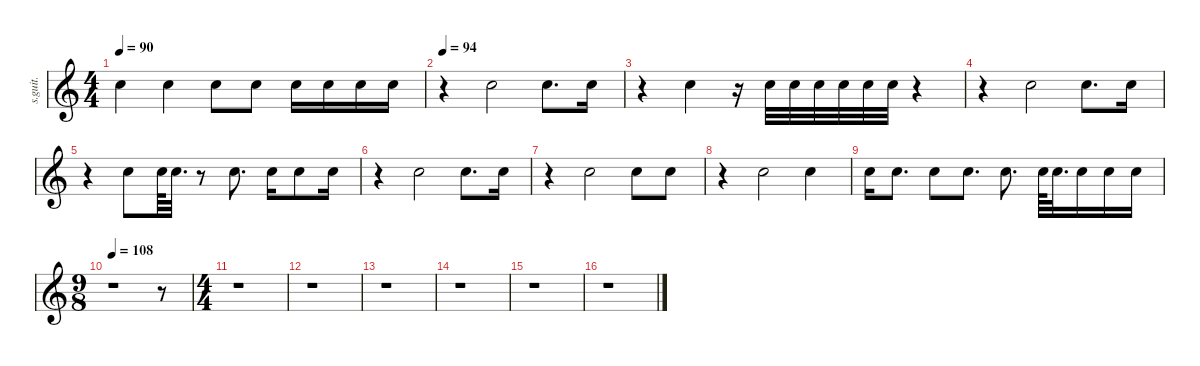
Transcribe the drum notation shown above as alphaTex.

\defaultSystemsLayout 4
\hideDynamics
\bracketExtendMode nobrackets
\track ("David Silveria (Snare Effect)" "s.guit.") {instrument percussion}
\staff {score}
\articulation defaults
\ts (4 4)
\tempo 90
\clef g2
\ks c "Hand Clap (hit)".4{dy f} "Hand Clap (hit)".4 "Hand Clap (hit)".8 "Hand Clap (hit)".8 "Hand Clap (hit)".16 "Hand Clap (hit)".16 "Hand Clap (hit)".16 "Hand Clap (hit)".16
|
\tempo 94
r.4 "Hand Clap (hit)".2 "Hand Clap (hit)".8{d} "Hand Clap (hit)".16 |
r.4 "Hand Clap (hit)".4 r.16 "Hand Clap (hit)".32 "Hand Clap (hit)".32 "Hand Clap (hit)".32 "Hand Clap (hit)".32 "Hand Clap (hit)".32 "Hand Clap (hit)".32 r.4 |
r.4 "Hand Clap (hit)".2 "Hand Clap (hit)".8{d} "Hand Clap (hit)".16 |
r.4 "Hand Clap (hit)".8 "Hand Clap (hit)".64 "Hand Clap (hit)".32{d} r.8 "Hand Clap (hit)".8{d} "Hand Clap (hit)".16 "Hand Clap (hit)".8 "Hand Clap (hit)".16 |
r.4 "Hand Clap (hit)".2 "Hand Clap (hit)".8{d} "Hand Clap (hit)".16 |
r.4 "Hand Clap (hit)".2 "Hand Clap (hit)".8 "Hand Clap (hit)".8 |
r.4 "Hand Clap (hit)".2 "Hand Clap (hit)".4 |
"Hand Clap (hit)".16 "Hand Clap (hit)".8{d} "Hand Clap (hit)".8 "Hand Clap (hit)".8{d} "Hand Clap (hit)".8{d} "Hand Clap (hit)".64 "Hand Clap (hit)".32{d} "Hand Clap (hit)".16 "Hand Clap (hit)".16 "Hand Clap (hit)".16 |
\ts (9 8)
\beaming (8 2 2 2 2)
\tempo 108
r.1 r.8 |
\ts (4 4)
\beaming (8 2 2 2 2)
r.1 |
r.1 |
r.1 |
r.1 |
r.1 |
r.1
